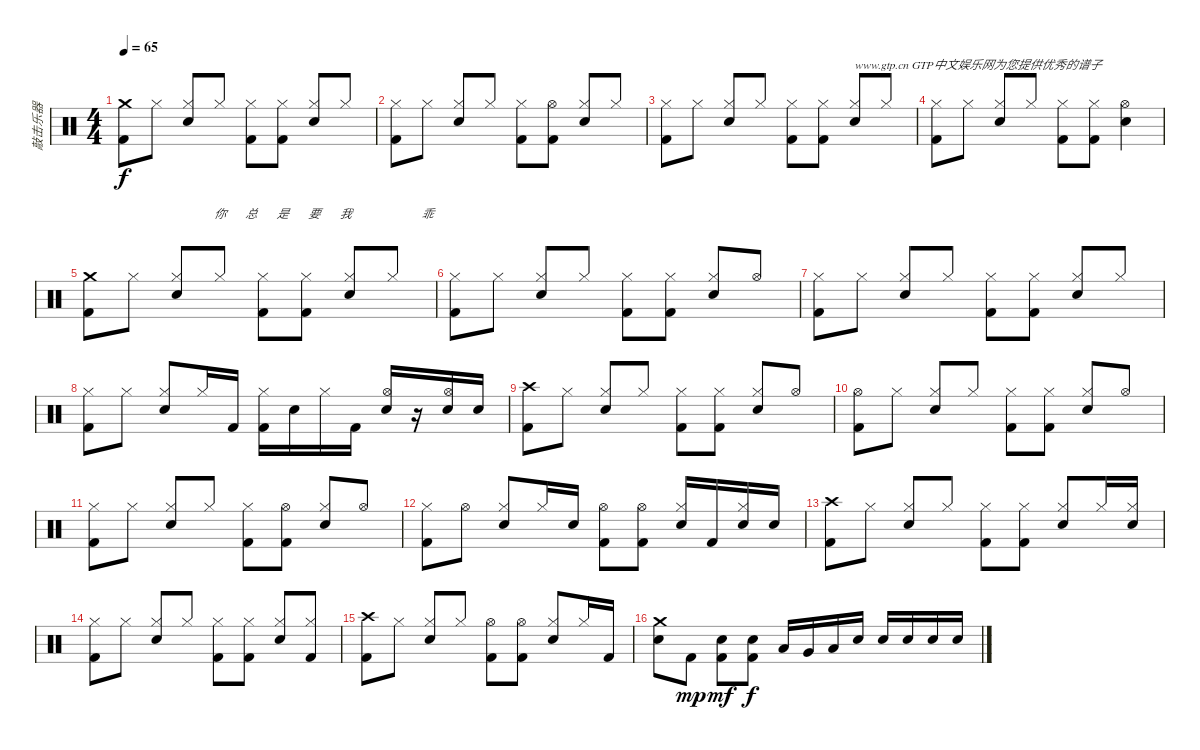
\track ("敲击乐器" "敲击乐器") {instrument percussion}
\staff {score}
\articulation defaults
\ts (4 4)
\tempo 65
\clef neutral
\ks c
("Crash medium (hit)" "Kick (hit) 2").8{lyrics (0 "") lyrics (1 "") lyrics (2 "") lyrics (3 "") lyrics (4 "") dy f beam Down} "Hi-Hat (closed)".8{lyrics (0 "") lyrics (1 "") lyrics (2 "") lyrics (3 "") lyrics (4 "") beam Down} ("Hi-Hat (closed)" "Electric Snare (hit)").8{lyrics (0 "") lyrics (1 "") lyrics (2 "") lyrics (3 "") lyrics (4 "") beam Up} "Hi-Hat (closed)".8{lyrics (0 "") lyrics (1 "") lyrics (2 "") lyrics (3 "你") lyrics (4 "") beam Up} ("Hi-Hat (closed)" "Kick (hit) 2").8{lyrics (0 "") lyrics (1 "") lyrics (2 "") lyrics (3 "总") lyrics (4 "") beam Down} ("Hi-Hat (closed)" "Kick (hit) 2").8{lyrics (0 "") lyrics (1 "") lyrics (2 "") lyrics (3 "是") lyrics (4 "") beam Down} ("Hi-Hat (closed)" "Electric Snare (hit)").8{lyrics (0 "") lyrics (1 "") lyrics (2 "") lyrics (3 "要") lyrics (4 "") beam Up} "Hi-Hat (closed)".8{lyrics (0 "") lyrics (1 "") lyrics (2 "") lyrics (3 "我") lyrics (4 "") beam Up} |
("Hi-Hat (closed)" "Kick (hit) 2").8{lyrics (0 "") lyrics (1 "") lyrics (2 "") lyrics (3 "") lyrics (4 "") beam Down} "Hi-Hat (closed)".8{lyrics (0 "") lyrics (1 "") lyrics (2 "") lyrics (3 "乖") lyrics (4 "") beam Down} ("Hi-Hat (closed)" "Electric Snare (hit)").8{beam Up} "Hi-Hat (closed)".8{beam Up} ("Hi-Hat (closed)" "Kick (hit) 2").8{beam Down} ("Hi-Hat (open)" "Kick (hit) 2").8{beam Down} ("Hi-Hat (closed)" "Electric Snare (hit)").8{beam Up} "Hi-Hat (closed)".8{beam Up} |
("Hi-Hat (closed)" "Kick (hit) 2").8{beam Down} "Hi-Hat (closed)".8{beam Down} ("Hi-Hat (closed)" "Electric Snare (hit)").8{beam Up} "Hi-Hat (closed)".8{beam Up} ("Hi-Hat (closed)" "Kick (hit) 2").8{beam Down} ("Hi-Hat (closed)" "Kick (hit) 2").8{beam Down} ("Hi-Hat (closed)" "Electric Snare (hit)").8{txt "www.gtp.cn GTP中文娱乐网为您提供优秀的谱子" beam Up} "Hi-Hat (closed)".8{beam Up} |
("Hi-Hat (closed)" "Kick (hit) 2").8{beam Down} "Hi-Hat (closed)".8{beam Down} ("Hi-Hat (closed)" "Electric Snare (hit)").8{beam Up} "Hi-Hat (closed)".8{beam Up} ("Hi-Hat (closed)" "Kick (hit) 2").8 ("Hi-Hat (closed)" "Kick (hit) 2").8 ("Hi-Hat (open)" "Electric Snare (hit)").4 |
("Crash medium (hit)" "Kick (hit) 2").8{beam Down} "Hi-Hat (closed)".8{beam Down} ("Hi-Hat (closed)" "Electric Snare (hit)").8{beam Up} "Hi-Hat (closed)".8{beam Up} ("Hi-Hat (closed)" "Kick (hit) 2").8{beam Down} ("Hi-Hat (closed)" "Kick (hit) 2").8{beam Down} ("Hi-Hat (closed)" "Electric Snare (hit)").8{beam Up} "Hi-Hat (closed)".8{beam Up} |
("Hi-Hat (closed)" "Kick (hit) 2").8{beam Down} "Hi-Hat (closed)".8{beam Down} ("Hi-Hat (closed)" "Electric Snare (hit)").8{beam Up} "Hi-Hat (closed)".8{beam Up} ("Hi-Hat (closed)" "Kick (hit) 2").8{beam Down} ("Hi-Hat (closed)" "Kick (hit) 2").8{beam Down} ("Hi-Hat (closed)" "Electric Snare (hit)").8{beam Up} "Hi-Hat (open)".8{beam Up} |
("Hi-Hat (closed)" "Kick (hit) 2").8{beam Down} "Hi-Hat (closed)".8{beam Down} ("Hi-Hat (closed)" "Electric Snare (hit)").8{beam Up} "Hi-Hat (closed)".8{beam Up} ("Hi-Hat (closed)" "Kick (hit) 2").8{beam Down} ("Hi-Hat (closed)" "Kick (hit) 2").8{beam Down} ("Hi-Hat (closed)" "Electric Snare (hit)").8{beam Up} "Hi-Hat (closed)".8{beam Up} |
("Hi-Hat (closed)" "Kick (hit) 2").8 "Hi-Hat (closed)".8 ("Hi-Hat (closed)" "Electric Snare (hit)").8{beam Up} "Hi-Hat (closed)".16{beam Up} "Kick (hit) 2".16{beam Up} ("Hi-Hat (closed)" "Kick (hit) 2").16 "Electric Snare (hit)".16 "Hi-Hat (closed)".16 "Kick (hit) 2".16 ("Hi-Hat (open)" "Electric Snare (hit)").16{beam Up} r.16 ("Hi-Hat (open)" "Electric Snare (hit)").16{beam Up} "Electric Snare (hit)".16{beam Up} |
("Crash high (hit)" "Kick (hit) 2").8{beam Down} "Hi-Hat (closed)".8{beam Down} ("Hi-Hat (closed)" "Electric Snare (hit)").8{beam Up} "Hi-Hat (closed)".8{beam Up} ("Hi-Hat (closed)" "Kick (hit) 2").8{beam Down} ("Hi-Hat (closed)" "Kick (hit) 2").8{beam Down} ("Hi-Hat (closed)" "Electric Snare (hit)").8{beam Up} "Hi-Hat (open)".8{beam Up} |
("Hi-Hat (open)" "Kick (hit) 2").8{beam Down} "Hi-Hat (closed)".8{beam Down} ("Hi-Hat (closed)" "Electric Snare (hit)").8{beam Up} "Hi-Hat (closed)".8{beam Up} ("Hi-Hat (closed)" "Kick (hit) 2").8{beam Down} ("Hi-Hat (closed)" "Kick (hit) 2").8{beam Down} ("Hi-Hat (closed)" "Electric Snare (hit)").8{beam Up} "Hi-Hat (open)".8{beam Up} |
("Hi-Hat (closed)" "Kick (hit) 2").8{beam Down} "Hi-Hat (closed)".8{beam Down} ("Hi-Hat (closed)" "Electric Snare (hit)").8{beam Up} "Hi-Hat (closed)".8{beam Up} ("Hi-Hat (closed)" "Kick (hit) 2").8{beam Down} ("Hi-Hat (open)" "Kick (hit) 2").8{beam Down} ("Hi-Hat (closed)" "Electric Snare (hit)").8{beam Up} "Hi-Hat (open)".8{beam Up} |
("Hi-Hat (closed)" "Kick (hit) 2").8{beam Down} "Hi-Hat (open)".8{beam Down} ("Hi-Hat (closed)" "Electric Snare (hit)").8{beam Up} "Hi-Hat (closed)".16{beam Up} "Electric Snare (hit)".16{beam Up} ("Hi-Hat (open)" "Kick (hit) 2").8{beam Down} ("Hi-Hat (open)" "Kick (hit) 2").8{beam Down} ("Hi-Hat (closed)" "Electric Snare (hit)").16{beam Up} "Kick (hit) 2".16{beam Up} ("Hi-Hat (closed)" "Electric Snare (hit)").16{beam Up} "Electric Snare (hit)".16{beam Up} |
("Crash high (hit)" "Kick (hit) 2").8{beam Down} "Hi-Hat (closed)".8{beam Down} ("Hi-Hat (closed)" "Electric Snare (hit)").8{beam Up} "Hi-Hat (closed)".8{beam Up} ("Hi-Hat (closed)" "Kick (hit) 2").8{beam Down} ("Hi-Hat (closed)" "Kick (hit) 2").8{beam Down} ("Hi-Hat (closed)" "Electric Snare (hit)").8{beam Up} "Hi-Hat (closed)".16{beam Up} ("Hi-Hat (closed)" "Electric Snare (hit)").16{beam Up} |
("Hi-Hat (closed)" "Kick (hit) 2").8{beam Down} "Hi-Hat (closed)".8{beam Down} ("Hi-Hat (closed)" "Electric Snare (hit)").8{beam Up} "Hi-Hat (closed)".8{beam Up} ("Hi-Hat (closed)" "Kick (hit) 2").8{beam Down} ("Hi-Hat (closed)" "Kick (hit) 2").8{beam Down} ("Hi-Hat (closed)" "Electric Snare (hit)").8{beam Up} ("Hi-Hat (closed)" "Kick (hit) 2").8{beam Up} |
("Crash high (hit)" "Kick (hit) 2").8{beam Down} "Hi-Hat (closed)".8{beam Down} ("Hi-Hat (closed)" "Electric Snare (hit)").8{beam Up} "Hi-Hat (closed)".8{beam Up} ("Hi-Hat (open)" "Kick (hit) 2").8{beam Down} ("Hi-Hat (open)" "Kick (hit) 2").8{beam Down} ("Hi-Hat (closed)" "Electric Snare (hit)").8{beam Up} "Hi-Hat (closed)".16{beam Up} "Kick (hit) 2".16{beam Up} |
("Crash medium (hit)" "Electric Snare (hit)").8 "Kick (hit) 2".8{dy mp} ("Electric Snare (hit)" "Kick (hit) 2").8{dy mf beam Down} ("Electric Snare (hit)" "Kick (hit) 2").8{dy f beam Down} "Low Tom (hit)".16{beam Up} "Very Low Tom (hit)".16{beam Up} "Low Floor Tom (hit)".16{beam Up} "Electric Snare (hit)".16{beam Up} "Electric Snare (hit)".16{beam Up} "Electric Snare (hit)".16{beam Up} "Electric Snare (hit)".16{beam Up} "Electric Snare (hit)".16{beam Up}
